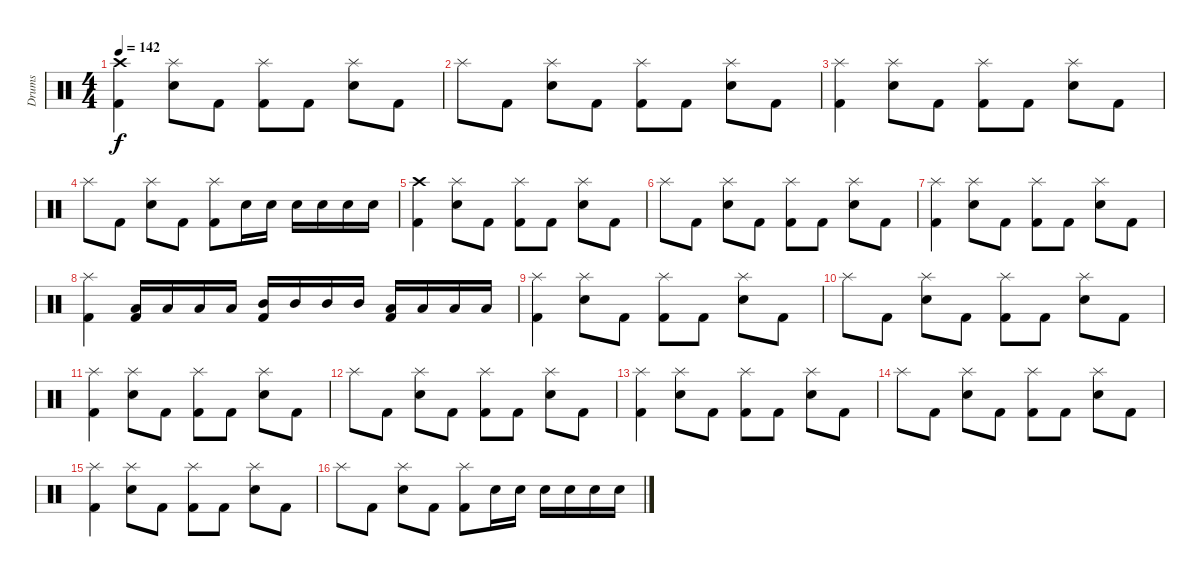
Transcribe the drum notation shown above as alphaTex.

\track ("Drums" "Drums") {instrument percussion}
\staff {score}
\articulation defaults
\ts (4 4)
\tempo 142
\clef neutral
\ks c
("Crash high (hit)" "Kick (hit) 2").4{dy f} ("Splash (hit)" "Electric Snare (hit)").8 "Kick (hit) 2".8 ("Splash (hit)" "Kick (hit) 2").8 "Kick (hit) 2".8 ("Splash (hit)" "Electric Snare (hit)").8 "Kick (hit) 2".8 |
"Splash (hit)".8 "Kick (hit) 2".8 ("Splash (hit)" "Electric Snare (hit)").8 "Kick (hit) 2".8 ("Splash (hit)" "Kick (hit) 2").8 "Kick (hit) 2".8 ("Splash (hit)" "Electric Snare (hit)").8 "Kick (hit) 2".8 |
("Splash (hit)" "Kick (hit) 2").4 ("Splash (hit)" "Electric Snare (hit)").8 "Kick (hit) 2".8 ("Splash (hit)" "Kick (hit) 2").8 "Kick (hit) 2".8 ("Splash (hit)" "Electric Snare (hit)").8 "Kick (hit) 2".8 |
"Splash (hit)".8 "Kick (hit) 2".8 ("Splash (hit)" "Electric Snare (hit)").8 "Kick (hit) 2".8 ("Splash (hit)" "Kick (hit) 2").8 "Electric Snare (hit)".16 "Electric Snare (hit)".16 "Electric Snare (hit)".16 "Electric Snare (hit)".16 "Electric Snare (hit)".16 "Electric Snare (hit)".16 |
("Crash high (hit)" "Kick (hit) 2").4 ("Splash (hit)" "Electric Snare (hit)").8 "Kick (hit) 2".8 ("Splash (hit)" "Kick (hit) 2").8 "Kick (hit) 2".8 ("Splash (hit)" "Electric Snare (hit)").8 "Kick (hit) 2".8 |
"Splash (hit)".8 "Kick (hit) 2".8 ("Splash (hit)" "Electric Snare (hit)").8 "Kick (hit) 2".8 ("Splash (hit)" "Kick (hit) 2").8 "Kick (hit) 2".8 ("Splash (hit)" "Electric Snare (hit)").8 "Kick (hit) 2".8 |
("Splash (hit)" "Kick (hit) 2").4 ("Splash (hit)" "Electric Snare (hit)").8 "Kick (hit) 2".8 ("Splash (hit)" "Kick (hit) 2").8 "Kick (hit) 2".8 ("Splash (hit)" "Electric Snare (hit)").8 "Kick (hit) 2".8 |
("Splash (hit)" "Kick (hit) 2").4 ("Low Tom (hit)" "Kick (hit) 2").16 "Low Tom (hit)".16 "Low Tom (hit)".16 "Low Tom (hit)".16 ("Mid Tom (hit)" "Kick (hit) 2").16 "Mid Tom (hit)".16 "Mid Tom (hit)".16 "Mid Tom (hit)".16 ("Low Floor Tom (hit)" "Kick (hit) 2").16 "Low Floor Tom (hit)".16 "Low Floor Tom (hit)".16 "Low Floor Tom (hit)".16 |
("Splash (hit)" "Kick (hit) 2").4 ("Splash (hit)" "Electric Snare (hit)").8 "Kick (hit) 2".8 ("Splash (hit)" "Kick (hit) 2").8 "Kick (hit) 2".8 ("Splash (hit)" "Electric Snare (hit)").8 "Kick (hit) 2".8 |
"Splash (hit)".8 "Kick (hit) 2".8 ("Splash (hit)" "Electric Snare (hit)").8 "Kick (hit) 2".8 ("Splash (hit)" "Kick (hit) 2").8 "Kick (hit) 2".8 ("Splash (hit)" "Electric Snare (hit)").8 "Kick (hit) 2".8 |
("Splash (hit)" "Kick (hit) 2").4 ("Splash (hit)" "Electric Snare (hit)").8 "Kick (hit) 2".8 ("Splash (hit)" "Kick (hit) 2").8 "Kick (hit) 2".8 ("Splash (hit)" "Electric Snare (hit)").8 "Kick (hit) 2".8 |
"Splash (hit)".8 "Kick (hit) 2".8 ("Splash (hit)" "Electric Snare (hit)").8 "Kick (hit) 2".8 ("Splash (hit)" "Kick (hit) 2").8 "Kick (hit) 2".8 ("Splash (hit)" "Electric Snare (hit)").8 "Kick (hit) 2".8 |
("Splash (hit)" "Kick (hit) 2").4 ("Splash (hit)" "Electric Snare (hit)").8 "Kick (hit) 2".8 ("Splash (hit)" "Kick (hit) 2").8 "Kick (hit) 2".8 ("Splash (hit)" "Electric Snare (hit)").8 "Kick (hit) 2".8 |
"Splash (hit)".8 "Kick (hit) 2".8 ("Splash (hit)" "Electric Snare (hit)").8 "Kick (hit) 2".8 ("Splash (hit)" "Kick (hit) 2").8 "Kick (hit) 2".8 ("Splash (hit)" "Electric Snare (hit)").8 "Kick (hit) 2".8 |
("Splash (hit)" "Kick (hit) 2").4 ("Splash (hit)" "Electric Snare (hit)").8 "Kick (hit) 2".8 ("Splash (hit)" "Kick (hit) 2").8 "Kick (hit) 2".8 ("Splash (hit)" "Electric Snare (hit)").8 "Kick (hit) 2".8 |
"Splash (hit)".8 "Kick (hit) 2".8 ("Splash (hit)" "Electric Snare (hit)").8 "Kick (hit) 2".8 ("Splash (hit)" "Kick (hit) 2").8 "Electric Snare (hit)".16 "Electric Snare (hit)".16 "Electric Snare (hit)".16 "Electric Snare (hit)".16 "Electric Snare (hit)".16 "Electric Snare (hit)".16
